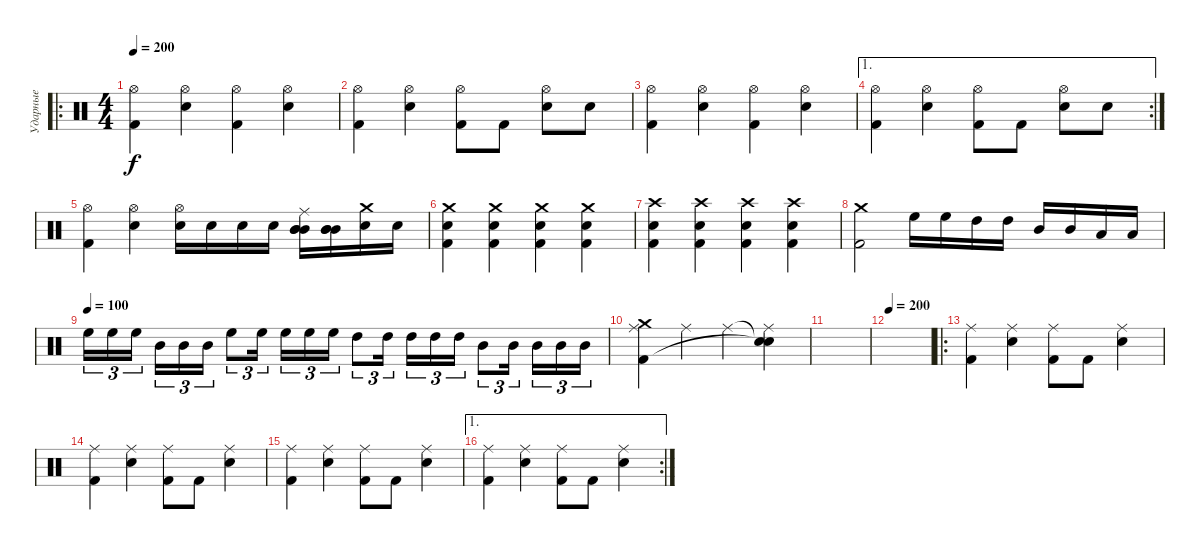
\track ("Ударные" "Ударные") {instrument percussion}
\staff {score}
\articulation defaults
\ro
\ts (4 4)
\tempo 200
\clef neutral
\ks c
("Hi-Hat (open)" "Kick (hit) 2").4{dy f} ("Hi-Hat (open)" "Snare (hit) 2").4 ("Hi-Hat (open)" "Kick (hit) 2").4 ("Hi-Hat (open)" "Snare (hit) 2").4 |
("Hi-Hat (open)" "Kick (hit) 2").4 ("Hi-Hat (open)" "Snare (hit) 2").4 ("Hi-Hat (open)" "Kick (hit) 2").8 "Kick (hit) 2".8 ("Hi-Hat (open)" "Snare (hit) 2").8 "Snare (hit) 2".8 |
("Hi-Hat (open)" "Kick (hit) 2").4 ("Hi-Hat (open)" "Snare (hit) 2").4 ("Hi-Hat (open)" "Kick (hit) 2").4 ("Hi-Hat (open)" "Snare (hit) 2").4 |
\ae 1
\rc 2
("Hi-Hat (open)" "Kick (hit) 2").4 ("Hi-Hat (open)" "Snare (hit) 2").4 ("Hi-Hat (open)" "Kick (hit) 2").8 "Kick (hit) 2".8 ("Hi-Hat (open)" "Snare (hit) 2").8 "Snare (hit) 2".8 |
("Hi-Hat (open)" "Kick (hit) 2").4 ("Hi-Hat (open)" "Snare (hit) 2").4 ("Hi-Hat (open)" "Snare (hit) 2").16 "Snare (hit) 2".16 "Snare (hit) 2".16 "Snare (hit) 2".16 ("Ride (middle)" "Mid Tom (hit)" "Mid Tom (hit)" "Mid Tom (hit)").16 ("Mid Tom (hit)" "Mid Tom (hit)" "Mid Tom (hit)").16 ("Snare (hit) 2" "Crash medium (hit)").16 "Snare (hit) 2".16 |
("Crash medium (hit)" "Snare (hit) 2" "Kick (hit) 2").4 ("Crash medium (hit)" "Snare (hit) 2" "Kick (hit) 2").4 ("Crash medium (hit)" "Snare (hit) 2" "Kick (hit) 2").4 ("Crash medium (hit)" "Snare (hit) 2" "Kick (hit) 2").4 |
("Crash high (hit)" "Snare (hit) 2" "Kick (hit) 2").4 ("Crash high (hit)" "Snare (hit) 2" "Kick (hit) 2").4 ("Crash high (hit)" "Snare (hit) 2" "Kick (hit) 2").4 ("Crash high (hit)" "Snare (hit) 2" "Kick (hit) 2").4 |
("Crash medium (hit)" "Kick (hit) 2").2 "High Floor Tom (hit)".16 "High Floor Tom (hit)".16 "High Tom (hit)".16 "High Tom (hit)".16 "Mid Tom (hit)".16 "Mid Tom (hit)".16 "Low Tom (hit)".16 "Low Tom (hit)".16 |
\tempo (100)
"High Floor Tom (hit)".16{tu (3 2)} "High Floor Tom (hit)".16{tu (3 2)} "High Floor Tom (hit)".16{tu (3 2)} "Mid Tom (hit)".16{tu (3 2)} "Mid Tom (hit)".16{tu (3 2)} "Mid Tom (hit)".16{tu (3 2)} "High Floor Tom (hit)".8{tu (3 2)} "High Floor Tom (hit)".16{tu (3 2)} "High Floor Tom (hit)".16{tu (3 2)} "High Floor Tom (hit)".16{tu (3 2)} "High Floor Tom (hit)".16{tu (3 2)} "High Tom (hit)".8{tu (3 2)} "High Tom (hit)".16{tu (3 2)} "High Tom (hit)".16{tu (3 2)} "High Tom (hit)".16{tu (3 2)} "High Tom (hit)".16{tu (3 2)} "Mid Tom (hit)".8{tu (3 2)} "Mid Tom (hit)".16{tu (3 2)} "Mid Tom (hit)".16{tu (3 2)} "Mid Tom (hit)".16{tu (3 2)} "Mid Tom (hit)".16{tu (3 2)} |
("Crash medium (hit)" "Ride (middle)" "Kick (hit) 2").4 "Ride (middle)".4 "Ride (middle)".4 ("Snare (hit)"{t} "Ride (middle)" "Snare (hit)"{t}).4 |
|
\tempo 200
|
\ro
("Ride (middle)" "Kick (hit) 2").4 ("Ride (middle)" "Snare (hit) 2").4 ("Ride (middle)" "Kick (hit) 2").8 "Kick (hit) 2".8 ("Ride (middle)" "Snare (hit) 2").4 |
("Ride (middle)" "Kick (hit) 2").4 ("Ride (middle)" "Snare (hit) 2").4 ("Ride (middle)" "Kick (hit) 2").8 "Kick (hit) 2".8 ("Ride (middle)" "Snare (hit) 2").4 |
("Ride (middle)" "Kick (hit) 2").4 ("Ride (middle)" "Snare (hit) 2").4 ("Ride (middle)" "Kick (hit) 2").8 "Kick (hit) 2".8 ("Ride (middle)" "Snare (hit) 2").4 |
\ae 1
\rc 2
("Ride (middle)" "Kick (hit) 2").4 ("Ride (middle)" "Snare (hit) 2").4 ("Ride (middle)" "Kick (hit) 2").8 "Kick (hit) 2".8 ("Ride (middle)" "Snare (hit) 2").4
